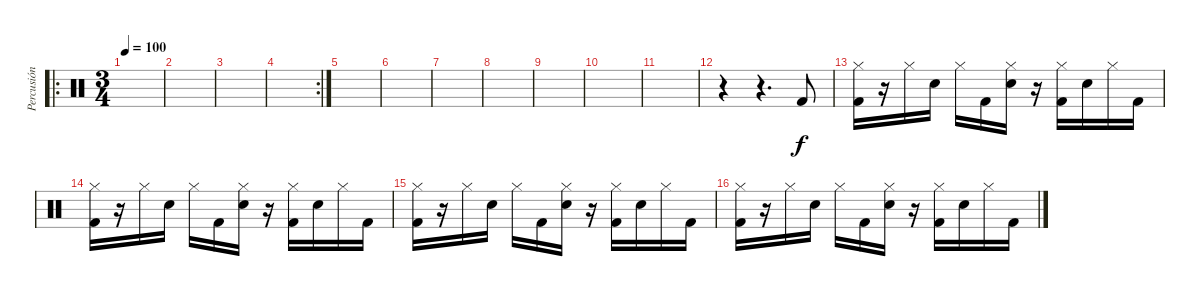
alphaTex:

\track ("Percusión" "Percusión") {instrument percussion}
\staff {score}
\articulation defaults
\ro
\ts (3 4)
\tempo 100
\clef neutral
\ks c
|
|
|
\rc 2
|
|
|
|
|
|
|
|
r.4 r.4{d} "Kick (hit) 2".8 |
("Hi-Hat (closed)" "Kick (hit) 2").16 r.16 "Hi-Hat (closed)".16 "Snare (hit) 2".16 "Hi-Hat (closed)".16 "Kick (hit) 2".16 ("Hi-Hat (closed)" "Snare (hit) 2").16 r.16 ("Hi-Hat (closed)" "Kick (hit) 2").16 "Snare (hit) 2".16 "Hi-Hat (closed)".16 "Kick (hit) 2".16 |
("Hi-Hat (closed)" "Kick (hit) 2").16 r.16 "Hi-Hat (closed)".16 "Snare (hit) 2".16 "Hi-Hat (closed)".16 "Kick (hit) 2".16 ("Hi-Hat (closed)" "Snare (hit) 2").16 r.16 ("Hi-Hat (closed)" "Kick (hit) 2").16 "Snare (hit) 2".16 "Hi-Hat (closed)".16 "Kick (hit) 2".16 |
("Hi-Hat (closed)" "Kick (hit) 2").16 r.16 "Hi-Hat (closed)".16 "Snare (hit) 2".16 "Hi-Hat (closed)".16 "Kick (hit) 2".16 ("Hi-Hat (closed)" "Snare (hit) 2").16 r.16 ("Hi-Hat (closed)" "Kick (hit) 2").16 "Snare (hit) 2".16 "Hi-Hat (closed)".16 "Kick (hit) 2".16 |
("Hi-Hat (closed)" "Kick (hit) 2").16 r.16 "Hi-Hat (closed)".16 "Snare (hit) 2".16 "Hi-Hat (closed)".16 "Kick (hit) 2".16 ("Hi-Hat (closed)" "Snare (hit) 2").16 r.16 ("Hi-Hat (closed)" "Kick (hit) 2").16 "Snare (hit) 2".16 "Hi-Hat (closed)".16 "Kick (hit) 2".16
